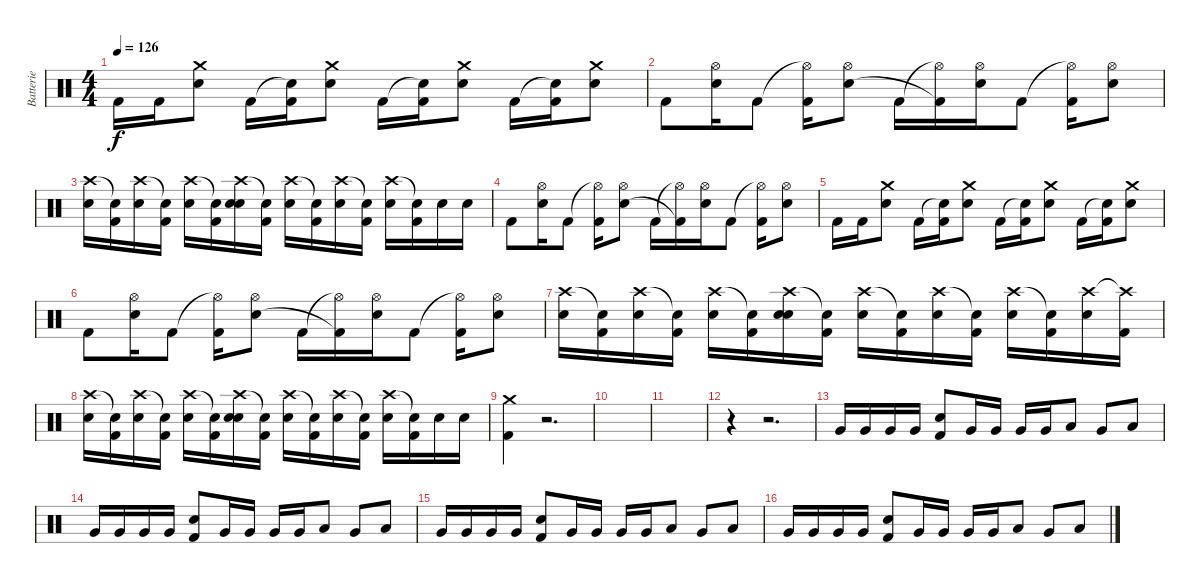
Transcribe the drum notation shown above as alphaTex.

\track ("Batterie" "Batterie") {instrument percussion}
\staff {score}
\articulation defaults
\ts (4 4)
\tempo 126
\clef neutral
\ks c "Kick (hit) 2".16{dy f} "Kick (hit) 2".16
("Crash medium (hit)" "Electric Snare (hit)").8 "Kick (hit) 2".16 ("Snare (hit)"{t} "Kick (hit) 2").16 ("Crash medium (hit)" "Electric Snare (hit)").8 "Kick (hit) 2".16 ("Snare (hit)"{t} "Kick (hit) 2").16 ("Crash medium (hit)" "Electric Snare (hit)").8 "Kick (hit) 2".16 ("Snare (hit)"{t} "Kick (hit) 2").16 ("Crash medium (hit)" "Electric Snare (hit)").8 |
"Kick (hit) 2".8 ("Hi-Hat (open)" "Electric Snare (hit)").16 "Kick (hit) 2".8 ("Hi-Hat (open)"{t} "Kick (hit) 2").16 ("Hi-Hat (open)" "Electric Snare (hit)").8 "Kick (hit) 2".16 ("Hi-Hat (open)"{t} "Kick (hit) 2"{t}).16 ("Hi-Hat (open)" "Electric Snare (hit)").16 "Kick (hit) 2".8 ("Hi-Hat (open)"{t} "Kick (hit) 2").16 ("Hi-Hat (open)" "Electric Snare (hit)").8 |
("Crash high (hit)" "Electric Snare (hit)").16 ("Snare (hit)"{t} "Kick (hit) 2").16 ("Crash high (hit)" "Electric Snare (hit)").16 ("Snare (hit)"{t} "Kick (hit) 2").16 ("Crash high (hit)" "Electric Snare (hit)").16 ("Snare (hit)"{t} "Kick (hit) 2").16 ("Crash high (hit)" "Electric Snare (hit)" "Electric Snare (hit)").16 ("Snare (hit)"{t} "Kick (hit) 2").16 ("Crash high (hit)" "Electric Snare (hit)").16 ("Snare (hit)"{t} "Kick (hit) 2").16 ("Crash high (hit)" "Electric Snare (hit)").16 ("Snare (hit)"{t} "Kick (hit) 2").16 ("Crash high (hit)" "Electric Snare (hit)").16 ("Snare (hit)"{t} "Kick (hit) 2").16 "Electric Snare (hit)".16 "Electric Snare (hit)".16 |
"Kick (hit) 2".8 ("Hi-Hat (open)" "Electric Snare (hit)").16 "Kick (hit) 2".8 ("Hi-Hat (open)"{t} "Kick (hit) 2").16 ("Hi-Hat (open)" "Electric Snare (hit)").8 "Kick (hit) 2".16 ("Hi-Hat (open)"{t} "Kick (hit) 2"{t}).16 ("Hi-Hat (open)" "Electric Snare (hit)").16 "Kick (hit) 2".8 ("Hi-Hat (open)"{t} "Kick (hit) 2").16 ("Hi-Hat (open)" "Electric Snare (hit)").8 |
"Kick (hit) 2".16 "Kick (hit) 2".16 ("Crash medium (hit)" "Electric Snare (hit)").8 "Kick (hit) 2".16 ("Snare (hit)"{t} "Kick (hit) 2").16 ("Crash medium (hit)" "Electric Snare (hit)").8 "Kick (hit) 2".16 ("Snare (hit)"{t} "Kick (hit) 2").16 ("Crash medium (hit)" "Electric Snare (hit)").8 "Kick (hit) 2".16 ("Snare (hit)"{t} "Kick (hit) 2").16 ("Crash medium (hit)" "Electric Snare (hit)").8 |
"Kick (hit) 2".8 ("Hi-Hat (open)" "Electric Snare (hit)").16 "Kick (hit) 2".8 ("Hi-Hat (open)"{t} "Kick (hit) 2").16 ("Hi-Hat (open)" "Electric Snare (hit)").8 "Kick (hit) 2".16 ("Hi-Hat (open)"{t} "Kick (hit) 2"{t}).16 ("Hi-Hat (open)" "Electric Snare (hit)").16 "Kick (hit) 2".8 ("Hi-Hat (open)"{t} "Kick (hit) 2").16 ("Hi-Hat (open)" "Electric Snare (hit)").8 |
("Crash high (hit)" "Electric Snare (hit)").16 ("Snare (hit)"{t} "Kick (hit) 2").16 ("Crash high (hit)" "Electric Snare (hit)").16 ("Snare (hit)"{t} "Kick (hit) 2").16 ("Crash high (hit)" "Electric Snare (hit)").16 ("Snare (hit)"{t} "Kick (hit) 2").16 ("Crash high (hit)" "Electric Snare (hit)" "Electric Snare (hit)").16 ("Snare (hit)"{t} "Kick (hit) 2").16 ("Crash high (hit)" "Electric Snare (hit)").16 ("Snare (hit)"{t} "Kick (hit) 2").16 ("Crash high (hit)" "Electric Snare (hit)").16 ("Snare (hit)"{t} "Kick (hit) 2").16 ("Crash high (hit)" "Electric Snare (hit)").16 ("Snare (hit)"{t} "Kick (hit) 2").16 ("Crash high (hit)" "Electric Snare (hit)").16 ("Crash high (hit)"{t} "Kick (hit) 2").16 |
("Crash high (hit)" "Electric Snare (hit)").16 ("Snare (hit)"{t} "Kick (hit) 2").16 ("Crash high (hit)" "Electric Snare (hit)").16 ("Snare (hit)"{t} "Kick (hit) 2").16 ("Crash high (hit)" "Electric Snare (hit)").16 ("Snare (hit)"{t} "Kick (hit) 2").16 ("Crash high (hit)" "Electric Snare (hit)" "Electric Snare (hit)").16 ("Snare (hit)"{t} "Kick (hit) 2").16 ("Crash high (hit)" "Electric Snare (hit)").16 ("Snare (hit)"{t} "Kick (hit) 2").16 ("Crash high (hit)" "Electric Snare (hit)").16 ("Snare (hit)"{t} "Kick (hit) 2").16 ("Crash high (hit)" "Electric Snare (hit)").16 ("Snare (hit)"{t} "Kick (hit) 2").16 "Electric Snare (hit)".16 "Electric Snare (hit)".16 |
("Crash medium (hit)" "Kick (hit) 2").4 r.2{d} |
|
|
r.4 r.2{d volume 15} |
"Very Low Tom (hit)".16 "Very Low Tom (hit)".16 "Very Low Tom (hit)".16 "Very Low Tom (hit)".16 ("Electric Snare (hit)" "Kick (hit) 2").8 "Very Low Tom (hit)".16 "Very Low Tom (hit)".16 "Very Low Tom (hit)".16 "Very Low Tom (hit)".16 "Low Floor Tom (hit)".8 "Very Low Tom (hit)".8 "Low Floor Tom (hit)".8 |
"Very Low Tom (hit)".16 "Very Low Tom (hit)".16 "Very Low Tom (hit)".16 "Very Low Tom (hit)".16 ("Electric Snare (hit)" "Kick (hit) 2").8 "Very Low Tom (hit)".16 "Very Low Tom (hit)".16 "Very Low Tom (hit)".16 "Very Low Tom (hit)".16 "Low Floor Tom (hit)".8 "Very Low Tom (hit)".8 "Low Floor Tom (hit)".8 |
"Very Low Tom (hit)".16 "Very Low Tom (hit)".16 "Very Low Tom (hit)".16 "Very Low Tom (hit)".16 ("Electric Snare (hit)" "Kick (hit) 2").8 "Very Low Tom (hit)".16 "Very Low Tom (hit)".16 "Very Low Tom (hit)".16 "Very Low Tom (hit)".16 "Low Floor Tom (hit)".8 "Very Low Tom (hit)".8 "Low Floor Tom (hit)".8 |
"Very Low Tom (hit)".16 "Very Low Tom (hit)".16 "Very Low Tom (hit)".16 "Very Low Tom (hit)".16 ("Electric Snare (hit)" "Kick (hit) 2").8 "Very Low Tom (hit)".16 "Very Low Tom (hit)".16 "Very Low Tom (hit)".16 "Very Low Tom (hit)".16 "Low Floor Tom (hit)".8 "Very Low Tom (hit)".8 "Low Floor Tom (hit)".8
